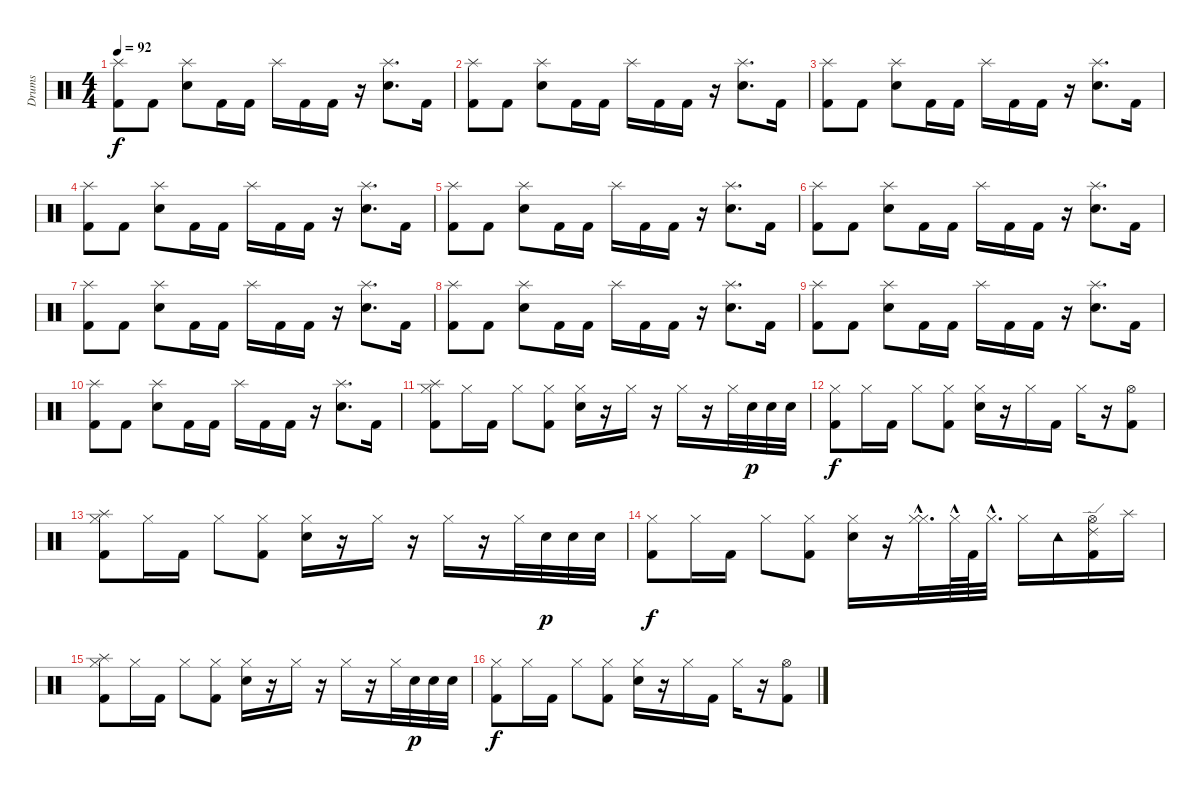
\track ("Drums" "Drums") {instrument percussion}
\staff {score}
\articulation defaults
\ts (4 4)
\tempo 92
\clef neutral
\ks c
("Splash (hit)" "Kick (hit) 2").8{dy f} "Kick (hit) 2".8 ("Splash (hit)" "Electric Snare (hit)").8 "Kick (hit) 2".16 "Kick (hit) 2".16 "Splash (hit)".16 "Kick (hit) 2".16 "Kick (hit) 2".16 r.16 ("Splash (hit)" "Electric Snare (hit)").8{d} "Kick (hit) 2".16 |
("Splash (hit)" "Kick (hit) 2").8 "Kick (hit) 2".8 ("Splash (hit)" "Electric Snare (hit)").8 "Kick (hit) 2".16 "Kick (hit) 2".16 "Splash (hit)".16 "Kick (hit) 2".16 "Kick (hit) 2".16 r.16 ("Splash (hit)" "Electric Snare (hit)").8{d} "Kick (hit) 2".16 |
("Splash (hit)" "Kick (hit) 2").8 "Kick (hit) 2".8 ("Splash (hit)" "Electric Snare (hit)").8 "Kick (hit) 2".16 "Kick (hit) 2".16 "Splash (hit)".16 "Kick (hit) 2".16 "Kick (hit) 2".16 r.16 ("Splash (hit)" "Electric Snare (hit)").8{d} "Kick (hit) 2".16 |
("Splash (hit)" "Kick (hit) 2").8 "Kick (hit) 2".8 ("Splash (hit)" "Electric Snare (hit)").8 "Kick (hit) 2".16 "Kick (hit) 2".16 "Splash (hit)".16 "Kick (hit) 2".16 "Kick (hit) 2".16 r.16 ("Splash (hit)" "Electric Snare (hit)").8{d} "Kick (hit) 2".16 |
("Splash (hit)" "Kick (hit) 2").8 "Kick (hit) 2".8 ("Splash (hit)" "Electric Snare (hit)").8 "Kick (hit) 2".16 "Kick (hit) 2".16 "Splash (hit)".16 "Kick (hit) 2".16 "Kick (hit) 2".16 r.16 ("Splash (hit)" "Electric Snare (hit)").8{d} "Kick (hit) 2".16 |
("Splash (hit)" "Kick (hit) 2").8 "Kick (hit) 2".8 ("Splash (hit)" "Electric Snare (hit)").8 "Kick (hit) 2".16 "Kick (hit) 2".16 "Splash (hit)".16 "Kick (hit) 2".16 "Kick (hit) 2".16 r.16 ("Splash (hit)" "Electric Snare (hit)").8{d} "Kick (hit) 2".16 |
("Splash (hit)" "Kick (hit) 2").8 "Kick (hit) 2".8 ("Splash (hit)" "Electric Snare (hit)").8 "Kick (hit) 2".16 "Kick (hit) 2".16 "Splash (hit)".16 "Kick (hit) 2".16 "Kick (hit) 2".16 r.16 ("Splash (hit)" "Electric Snare (hit)").8{d} "Kick (hit) 2".16 |
("Splash (hit)" "Kick (hit) 2").8 "Kick (hit) 2".8 ("Splash (hit)" "Electric Snare (hit)").8 "Kick (hit) 2".16 "Kick (hit) 2".16 "Splash (hit)".16 "Kick (hit) 2".16 "Kick (hit) 2".16 r.16 ("Splash (hit)" "Electric Snare (hit)").8{d} "Kick (hit) 2".16 |
("Splash (hit)" "Kick (hit) 2").8 "Kick (hit) 2".8 ("Splash (hit)" "Electric Snare (hit)").8 "Kick (hit) 2".16 "Kick (hit) 2".16 "Splash (hit)".16 "Kick (hit) 2".16 "Kick (hit) 2".16 r.16 ("Splash (hit)" "Electric Snare (hit)").8{d} "Kick (hit) 2".16 |
("Splash (hit)" "Kick (hit) 2").8 "Kick (hit) 2".8 ("Splash (hit)" "Electric Snare (hit)").8 "Kick (hit) 2".16 "Kick (hit) 2".16 "Splash (hit)".16 "Kick (hit) 2".16 "Kick (hit) 2".16 r.16 ("Splash (hit)" "Electric Snare (hit)").8{d} "Kick (hit) 2".16 |
("Splash (hit)" "Hi-Hat (closed)" "Kick (hit) 2").8 "Hi-Hat (closed)".16 "Kick (hit) 2".16 "Hi-Hat (closed)".8 ("Hi-Hat (closed)" "Kick (hit) 2").8 ("Hi-Hat (closed)" "Electric Snare (hit)").16 r.16 "Hi-Hat (closed)".16 r.16 "Hi-Hat (closed)".16 r.16 "Hi-Hat (closed)".32 "Electric Snare (hit)".32{dy p} "Electric Snare (hit)".32 "Electric Snare (hit)".32 |
("Hi-Hat (closed)" "Kick (hit) 2").8{dy f} "Hi-Hat (closed)".16 "Kick (hit) 2".16 "Hi-Hat (closed)".8 ("Hi-Hat (closed)" "Kick (hit) 2").8 ("Hi-Hat (closed)" "Electric Snare (hit)").16 r.16 "Hi-Hat (closed)".16 "Kick (hit) 2".16 "Hi-Hat (closed)".16 r.16 ("Hi-Hat (open)" "Kick (hit) 2").8 |
("Splash (hit)" "Hi-Hat (closed)" "Kick (hit) 2").8 "Hi-Hat (closed)".16 "Kick (hit) 2".16 "Hi-Hat (closed)".8 ("Hi-Hat (closed)" "Kick (hit) 2").8 ("Hi-Hat (closed)" "Electric Snare (hit)").16 r.16 "Hi-Hat (closed)".16 r.16 "Hi-Hat (closed)".16 r.16 "Hi-Hat (closed)".32 "Electric Snare (hit)".32{dy p} "Electric Snare (hit)".32 "Electric Snare (hit)".32 |
("Hi-Hat (closed)" "Kick (hit) 2").8{dy f} "Hi-Hat (closed)".16 "Kick (hit) 2".16 "Hi-Hat (closed)".8 ("Hi-Hat (closed)" "Kick (hit) 2").8 ("Hi-Hat (closed)" "Electric Snare (hit)").16 r.16 ("Hi-Hat (closed)"{hac} "Hi-Hat (closed)"{hac}).32{d} "Hi-Hat (closed)"{hac}.64 "Kick (hit) 2".64 "Hi-Hat (closed)"{hac}.32{d} "Hi-Hat (closed)".16 "Tambourine (hit)".16 ("Ride (edge) 2" "Hi-Hat (open)" "Kick (hit) 2").16 "Splash (hit)".16 |
("Splash (hit)" "Hi-Hat (closed)" "Kick (hit) 2").8 "Hi-Hat (closed)".16 "Kick (hit) 2".16 "Hi-Hat (closed)".8 ("Hi-Hat (closed)" "Kick (hit) 2").8 ("Hi-Hat (closed)" "Electric Snare (hit)").16 r.16 "Hi-Hat (closed)".16 r.16 "Hi-Hat (closed)".16 r.16 "Hi-Hat (closed)".32 "Electric Snare (hit)".32{dy p} "Electric Snare (hit)".32 "Electric Snare (hit)".32 |
("Hi-Hat (closed)" "Kick (hit) 2").8{dy f} "Hi-Hat (closed)".16 "Kick (hit) 2".16 "Hi-Hat (closed)".8 ("Hi-Hat (closed)" "Kick (hit) 2").8 ("Hi-Hat (closed)" "Electric Snare (hit)").16 r.16 "Hi-Hat (closed)".16 "Kick (hit) 2".16 "Hi-Hat (closed)".16 r.16 ("Hi-Hat (open)" "Kick (hit) 2").8
